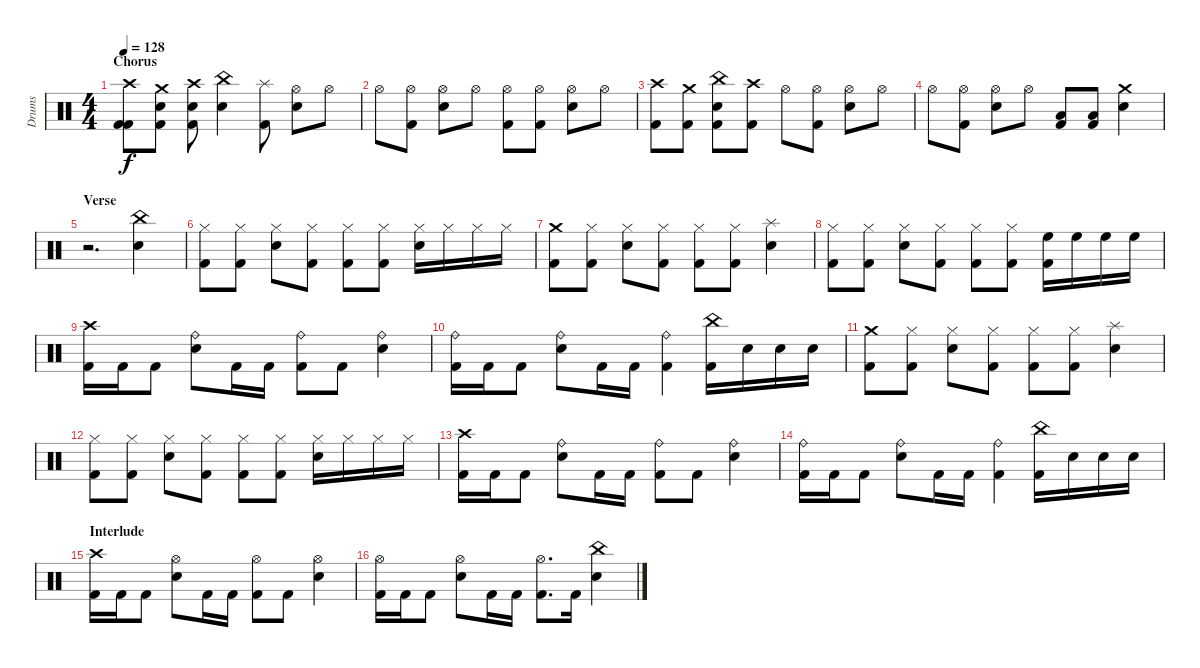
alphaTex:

\track ("Drums" "Drums") {instrument percussion}
\staff {score}
\articulation defaults
\ts (4 4)
\section ("" "Chorus")
\tempo 128
\clef neutral
\ks c
("Crash high (hit)" "Kick (hit) 2" "Kick (hit) 2").8{dy f} ("Crash medium (hit)" "Snare (hit) 2" "Kick (hit) 2").8 ("Crash high (hit)" "Snare (hit) 2" "Kick (hit) 2").8 ("China (hit)" "Snare (hit) 2").4 ("Splash (hit)" "Kick (hit) 2").8 ("Hi-Hat (open)" "Snare (hit) 2").8 "Hi-Hat (open)".8 |
"Hi-Hat (open)".8 ("Hi-Hat (open)" "Kick (hit) 2").8 ("Hi-Hat (open)" "Snare (hit) 2").8 "Hi-Hat (open)".8 ("Hi-Hat (open)" "Kick (hit) 2").8 ("Hi-Hat (open)" "Kick (hit) 2").8 ("Hi-Hat (open)" "Snare (hit) 2").8 "Hi-Hat (open)".8 |
("Crash high (hit)" "Kick (hit) 2").8 ("Crash medium (hit)" "Kick (hit) 2").8 ("China (hit)" "Snare (hit) 2" "Kick (hit) 2").8 ("Crash high (hit)" "Kick (hit) 2").8 "Hi-Hat (open)".8 ("Hi-Hat (open)" "Kick (hit) 2").8 ("Hi-Hat (open)" "Snare (hit) 2").8 "Hi-Hat (open)".8 |
"Hi-Hat (open)".8 ("Hi-Hat (open)" "Kick (hit) 2").8 ("Hi-Hat (open)" "Snare (hit) 2").8 "Hi-Hat (open)".8 ("Low Tom (hit)" "Kick (hit) 2").8 ("Low Floor Tom (hit)" "Kick (hit) 2").8 ("Crash medium (hit)" "Snare (hit) 2").4 |
\section ("" "Verse")
r.2{d} ("China (hit)" "Snare (hit) 2").4 |
("Hi-Hat (closed)" "Kick (hit) 2").8 ("Hi-Hat (closed)" "Kick (hit) 2").8 ("Hi-Hat (closed)" "Snare (hit) 2").8 ("Hi-Hat (closed)" "Kick (hit) 2").8 ("Hi-Hat (closed)" "Kick (hit) 2").8 ("Hi-Hat (closed)" "Kick (hit) 2").8 ("Hi-Hat (closed)" "Snare (hit) 2").16 "Hi-Hat (closed)".16 "Hi-Hat (closed)".16 "Hi-Hat (closed)".16 |
("Crash medium (hit)" "Kick (hit) 2").8 ("Hi-Hat (closed)" "Kick (hit) 2").8 ("Hi-Hat (closed)" "Snare (hit) 2").8 ("Hi-Hat (closed)" "Kick (hit) 2").8 ("Hi-Hat (closed)" "Kick (hit) 2").8 ("Hi-Hat (closed)" "Kick (hit) 2").8 ("Splash (hit)" "Snare (hit) 2").4 |
("Hi-Hat (closed)" "Kick (hit) 2").8 ("Hi-Hat (closed)" "Kick (hit) 2").8 ("Hi-Hat (closed)" "Snare (hit) 2").8 ("Hi-Hat (closed)" "Kick (hit) 2").8 ("Hi-Hat (closed)" "Kick (hit) 2").8 ("Hi-Hat (closed)" "Kick (hit) 2").8 ("High Floor Tom (hit)" "Kick (hit) 2").16 "High Floor Tom (hit)".16 "High Floor Tom (hit)".16 "High Floor Tom (hit)".16 |
("Crash high (hit)" "Kick (hit) 2").16 "Kick (hit) 2".16 "Kick (hit) 2".8 ("Ride (bell)" "Snare (hit) 2").8 "Kick (hit) 2".16 "Kick (hit) 2".16 ("Ride (bell)" "Kick (hit) 2").8 "Kick (hit) 2".8 ("Ride (bell)" "Snare (hit) 2").4 |
("Ride (bell)" "Kick (hit) 2").16 "Kick (hit) 2".16 "Kick (hit) 2".8 ("Ride (bell)" "Snare (hit) 2").8 "Kick (hit) 2".16 "Kick (hit) 2".16 ("Ride (bell)" "Kick (hit) 2").4 ("China (hit)" "Kick (hit) 2").16 "Snare (hit) 2".16 "Snare (hit) 2".16 "Snare (hit) 2".16 |
("Crash medium (hit)" "Kick (hit) 2").8 ("Hi-Hat (closed)" "Kick (hit) 2").8 ("Hi-Hat (closed)" "Snare (hit) 2").8 ("Hi-Hat (closed)" "Kick (hit) 2").8 ("Hi-Hat (closed)" "Kick (hit) 2").8 ("Hi-Hat (closed)" "Kick (hit) 2").8 ("Splash (hit)" "Snare (hit) 2").4 |
("Hi-Hat (closed)" "Kick (hit) 2").8 ("Hi-Hat (closed)" "Kick (hit) 2").8 ("Hi-Hat (closed)" "Snare (hit) 2").8 ("Hi-Hat (closed)" "Kick (hit) 2").8 ("Hi-Hat (closed)" "Kick (hit) 2").8 ("Hi-Hat (closed)" "Kick (hit) 2").8 ("Hi-Hat (closed)" "Snare (hit) 2").16 "Hi-Hat (closed)".16 "Hi-Hat (closed)".16 "Hi-Hat (closed)".16 |
("Crash high (hit)" "Kick (hit) 2").16 "Kick (hit) 2".16 "Kick (hit) 2".8 ("Ride (bell)" "Snare (hit) 2").8 "Kick (hit) 2".16 "Kick (hit) 2".16 ("Ride (bell)" "Kick (hit) 2").8 "Kick (hit) 2".8 ("Ride (bell)" "Snare (hit) 2").4 |
("Ride (bell)" "Kick (hit) 2").16 "Kick (hit) 2".16 "Kick (hit) 2".8 ("Ride (bell)" "Snare (hit) 2").8 "Kick (hit) 2".16 "Kick (hit) 2".16 ("Ride (bell)" "Kick (hit) 2").4 ("China (hit)" "Kick (hit) 2").16 "Snare (hit) 2".16 "Snare (hit) 2".16 "Snare (hit) 2".16 |
\section ("" "Interlude")
("Crash high (hit)" "Kick (hit) 2").16 "Kick (hit) 2".16 "Kick (hit) 2".8 ("Hi-Hat (open)" "Snare (hit) 2").8 "Kick (hit) 2".16 "Kick (hit) 2".16 ("Hi-Hat (open)" "Kick (hit) 2").8 "Kick (hit) 2".8 ("Hi-Hat (open)" "Snare (hit) 2").4 |
("Hi-Hat (open)" "Kick (hit) 2").16 "Kick (hit) 2".16 "Kick (hit) 2".8 ("Hi-Hat (open)" "Snare (hit) 2").8 "Kick (hit) 2".16 "Kick (hit) 2".16 ("Hi-Hat (open)" "Kick (hit) 2").8{d} "Kick (hit) 2".16 ("China (hit)" "Snare (hit) 2").4
